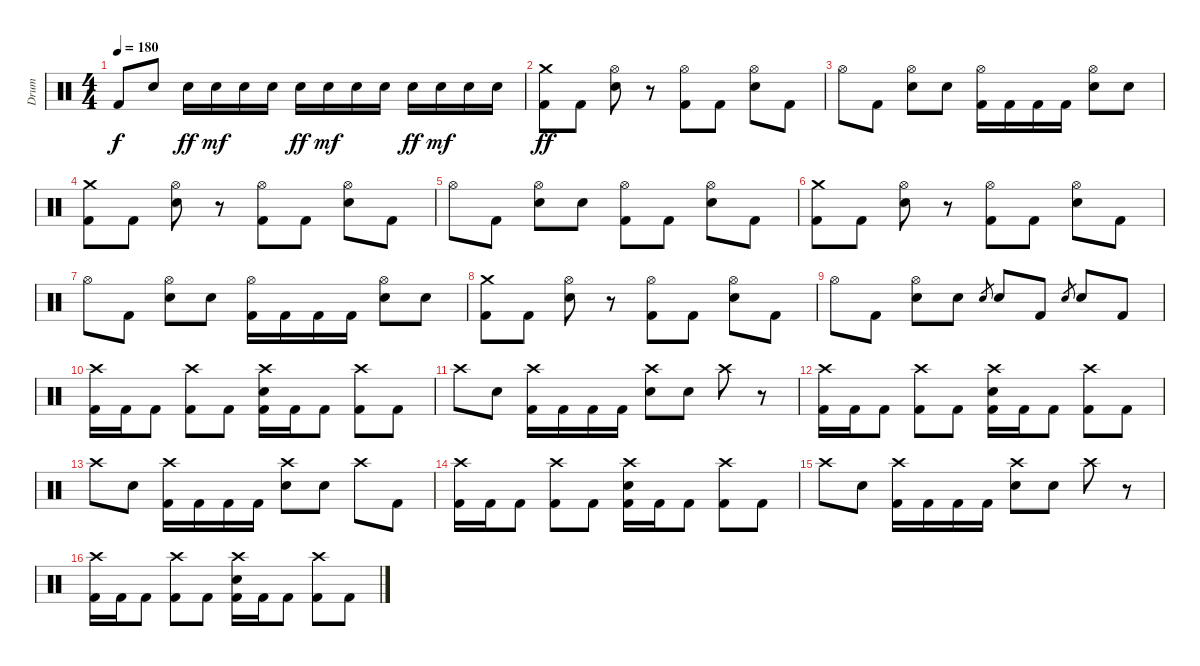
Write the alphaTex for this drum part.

\track ("Drum" "Drum") {instrument percussion}
\staff {score}
\articulation defaults
\ts (4 4)
\tempo 180
\clef neutral
\ks c "Kick (hit) 2".8{dy f} "Snare (hit) 2".8 "Snare (hit) 2".16{dy ff} "Snare (hit) 2".16{dy mf} "Snare (hit) 2".16 "Snare (hit) 2".16 "Snare (hit) 2".16{dy ff} "Snare (hit) 2".16{dy mf} "Snare (hit) 2".16 "Snare (hit) 2".16 "Snare (hit) 2".16{dy ff} "Snare (hit) 2".16{dy mf} "Snare (hit) 2".16 "Snare (hit) 2".16
|
("Crash medium (hit)" "Kick (hit) 2").8{dy ff} "Kick (hit) 2".8 ("Hi-Hat (open)" "Snare (hit) 2").8 r.8 ("Hi-Hat (open)" "Kick (hit) 2").8 "Kick (hit) 2".8 ("Hi-Hat (open)" "Snare (hit) 2").8 "Kick (hit) 2".8 |
"Hi-Hat (open)".8 "Kick (hit) 2".8 ("Hi-Hat (open)" "Snare (hit) 2").8 "Snare (hit) 2".8 ("Hi-Hat (open)" "Kick (hit) 2").16 "Kick (hit) 2".16 "Kick (hit) 2".16 "Kick (hit) 2".16 ("Hi-Hat (open)" "Snare (hit) 2").8 "Snare (hit) 2".8 |
("Crash medium (hit)" "Kick (hit) 2").8 "Kick (hit) 2".8 ("Hi-Hat (open)" "Snare (hit) 2").8 r.8 ("Hi-Hat (open)" "Kick (hit) 2").8 "Kick (hit) 2".8 ("Hi-Hat (open)" "Snare (hit) 2").8 "Kick (hit) 2".8 |
"Hi-Hat (open)".8 "Kick (hit) 2".8 ("Hi-Hat (open)" "Snare (hit) 2").8 "Snare (hit) 2".8 ("Hi-Hat (open)" "Kick (hit) 2").8 "Kick (hit) 2".8 ("Hi-Hat (open)" "Snare (hit) 2").8 "Kick (hit) 2".8 |
("Crash medium (hit)" "Kick (hit) 2").8 "Kick (hit) 2".8 ("Hi-Hat (open)" "Snare (hit) 2").8 r.8 ("Hi-Hat (open)" "Kick (hit) 2").8 "Kick (hit) 2".8 ("Hi-Hat (open)" "Snare (hit) 2").8 "Kick (hit) 2".8 |
"Hi-Hat (open)".8 "Kick (hit) 2".8 ("Hi-Hat (open)" "Snare (hit) 2").8 "Snare (hit) 2".8 ("Hi-Hat (open)" "Kick (hit) 2").16 "Kick (hit) 2".16 "Kick (hit) 2".16 "Kick (hit) 2".16 ("Hi-Hat (open)" "Snare (hit) 2").8 "Snare (hit) 2".8 |
("Crash medium (hit)" "Kick (hit) 2").8 "Kick (hit) 2".8 ("Hi-Hat (open)" "Snare (hit) 2").8 r.8 ("Hi-Hat (open)" "Kick (hit) 2").8 "Kick (hit) 2".8 ("Hi-Hat (open)" "Snare (hit) 2").8 "Kick (hit) 2".8 |
"Hi-Hat (open)".8 "Kick (hit) 2".8 ("Hi-Hat (open)" "Snare (hit) 2").8 "Snare (hit) 2".8 "Snare (hit) 2".8{gr} "Snare (hit) 2".8 "Kick (hit) 2".8 "Snare (hit) 2".8{gr} "Snare (hit) 2".8 "Kick (hit) 2".8 |
("Crash high (hit)" "Kick (hit) 2").16 "Kick (hit) 2".16 "Kick (hit) 2".8 ("Crash high (hit)" "Kick (hit) 2").8 "Kick (hit) 2".8 ("Crash high (hit)" "Snare (hit) 2" "Kick (hit) 2").16 "Kick (hit) 2".16 "Kick (hit) 2".8 ("Crash high (hit)" "Kick (hit) 2").8 "Kick (hit) 2".8 |
"Crash high (hit)".8 "Snare (hit) 2".8 ("Crash high (hit)" "Kick (hit) 2").16 "Kick (hit) 2".16 "Kick (hit) 2".16 "Kick (hit) 2".16 ("Crash high (hit)" "Snare (hit) 2").8 "Snare (hit) 2".8 "Crash high (hit)".8 r.8 |
("Crash high (hit)" "Kick (hit) 2").16 "Kick (hit) 2".16 "Kick (hit) 2".8 ("Crash high (hit)" "Kick (hit) 2").8 "Kick (hit) 2".8 ("Crash high (hit)" "Snare (hit) 2" "Kick (hit) 2").16 "Kick (hit) 2".16 "Kick (hit) 2".8 ("Crash high (hit)" "Kick (hit) 2").8 "Kick (hit) 2".8 |
"Crash high (hit)".8 "Snare (hit) 2".8 ("Crash high (hit)" "Kick (hit) 2").16 "Kick (hit) 2".16 "Kick (hit) 2".16 "Kick (hit) 2".16 ("Crash high (hit)" "Snare (hit) 2").8 "Snare (hit) 2".8 "Crash high (hit)".8 "Kick (hit) 2".8 |
("Crash high (hit)" "Kick (hit) 2").16 "Kick (hit) 2".16 "Kick (hit) 2".8 ("Crash high (hit)" "Kick (hit) 2").8 "Kick (hit) 2".8 ("Crash high (hit)" "Snare (hit) 2" "Kick (hit) 2").16 "Kick (hit) 2".16 "Kick (hit) 2".8 ("Crash high (hit)" "Kick (hit) 2").8 "Kick (hit) 2".8 |
"Crash high (hit)".8 "Snare (hit) 2".8 ("Crash high (hit)" "Kick (hit) 2").16 "Kick (hit) 2".16 "Kick (hit) 2".16 "Kick (hit) 2".16 ("Crash high (hit)" "Snare (hit) 2").8 "Snare (hit) 2".8 "Crash high (hit)".8 r.8 |
("Crash high (hit)" "Kick (hit) 2").16 "Kick (hit) 2".16 "Kick (hit) 2".8 ("Crash high (hit)" "Kick (hit) 2").8 "Kick (hit) 2".8 ("Crash high (hit)" "Snare (hit) 2" "Kick (hit) 2").16 "Kick (hit) 2".16 "Kick (hit) 2".8 ("Crash high (hit)" "Kick (hit) 2").8 "Kick (hit) 2".8
